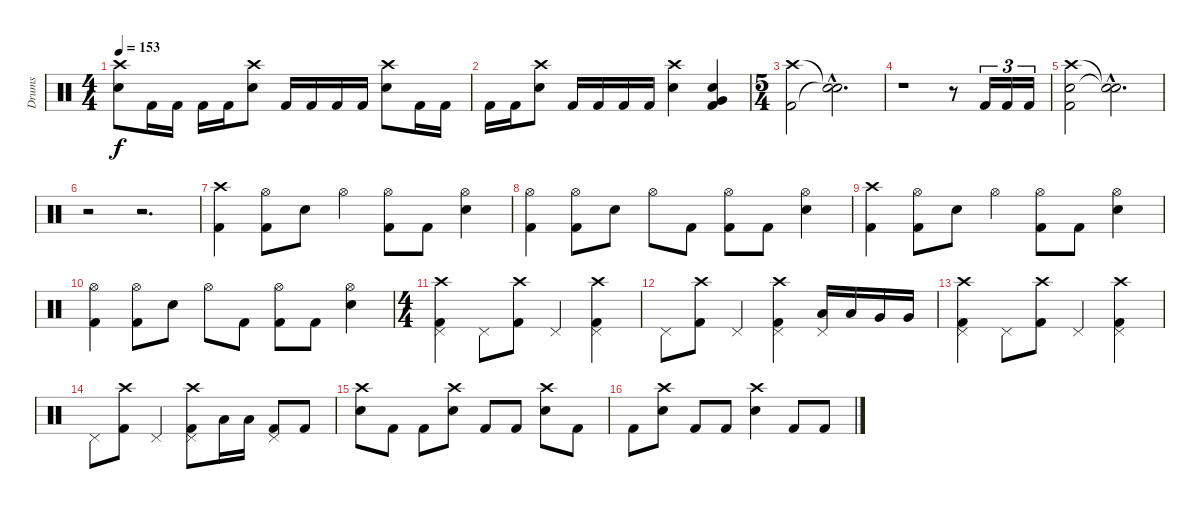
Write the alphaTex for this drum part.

\track ("Drums" "Drums") {instrument percussion}
\staff {score}
\articulation defaults
\ts (4 4)
\tempo 153
\clef neutral
\ks c
("Crash high (hit)" "Electric Snare (hit)").8{dy f} "Kick (hit) 2".16 "Kick (hit) 2".16 "Kick (hit) 2".16 "Kick (hit) 2".16 ("Crash high (hit)" "Electric Snare (hit)").8 "Kick (hit) 2".16 "Kick (hit) 2".16 "Kick (hit) 2".16 "Kick (hit) 2".16 ("Crash high (hit)" "Electric Snare (hit)").8 "Kick (hit) 2".16 "Kick (hit) 2".16 |
"Kick (hit) 2".16 "Kick (hit) 2".16 ("Crash high (hit)" "Electric Snare (hit)").8 "Kick (hit) 2".16 "Kick (hit) 2".16 "Kick (hit) 2".16 "Kick (hit) 2".16 ("Crash high (hit)" "Electric Snare (hit)").4 ("Very Low Tom (hit)" "Electric Snare (hit)" "Kick (hit) 2").4 |
\ts (5 4)
("Crash high (hit)" "Kick (hit) 2").2 ("Snare (hit)"{hac t} "Snare (hit)"{hac t}).2{d} |
r.1 r.8 "Kick (hit) 2".16{tu (3 2)} "Kick (hit) 2".16{tu (3 2)} "Kick (hit) 2".16{tu (3 2)} |
("Crash high (hit)" "Electric Snare (hit)" "Kick (hit) 2").2 ("Snare (hit)"{hac t} "Snare (hit)"{hac t}).2{d} |
r.2 r.2{d} |
("Crash high (hit)" "Kick (hit) 2").4 ("Hi-Hat (open)" "Kick (hit) 2").8 "Electric Snare (hit)".8 "Hi-Hat (open)".4 ("Hi-Hat (open)" "Kick (hit) 2").8 "Kick (hit) 2".8 ("Hi-Hat (open)" "Electric Snare (hit)").4 |
("Hi-Hat (open)" "Kick (hit) 2").4 ("Hi-Hat (open)" "Kick (hit) 2").8 "Electric Snare (hit)".8 "Hi-Hat (open)".8 "Kick (hit) 2".8 ("Hi-Hat (open)" "Kick (hit) 2").8 "Kick (hit) 2".8 ("Hi-Hat (open)" "Electric Snare (hit)").4 |
("Crash high (hit)" "Kick (hit) 2").4 ("Hi-Hat (open)" "Kick (hit) 2").8 "Electric Snare (hit)".8 "Hi-Hat (open)".4 ("Hi-Hat (open)" "Kick (hit) 2").8 "Kick (hit) 2".8 ("Hi-Hat (open)" "Electric Snare (hit)").4 |
("Hi-Hat (open)" "Kick (hit) 2").4 ("Hi-Hat (open)" "Kick (hit) 2").8 "Electric Snare (hit)".8 "Hi-Hat (open)".8 "Kick (hit) 2".8 ("Hi-Hat (open)" "Kick (hit) 2").8 "Kick (hit) 2".8 ("Hi-Hat (open)" "Electric Snare (hit)").4 |
\ts (4 4)
("Crash high (hit)" "Pedal Hi-Hat (hit)" "Kick (hit) 2").4 "Pedal Hi-Hat (hit)".8 ("Crash high (hit)" "Kick (hit) 2").8 "Pedal Hi-Hat (hit)".4 ("Crash high (hit)" "Pedal Hi-Hat (hit)" "Kick (hit) 2").4 |
"Pedal Hi-Hat (hit)".8 ("Crash high (hit)" "Kick (hit) 2").8 "Pedal Hi-Hat (hit)".4 ("Crash high (hit)" "Pedal Hi-Hat (hit)" "Kick (hit) 2").4 ("Pedal Hi-Hat (hit)" "Low Tom (hit)").16 "Low Tom (hit)".16 "Very Low Tom (hit)".16 "Very Low Tom (hit)".16 |
("Crash high (hit)" "Pedal Hi-Hat (hit)" "Kick (hit) 2").4 "Pedal Hi-Hat (hit)".8 ("Crash high (hit)" "Kick (hit) 2").8 "Pedal Hi-Hat (hit)".4 ("Crash high (hit)" "Pedal Hi-Hat (hit)" "Kick (hit) 2").4 |
"Pedal Hi-Hat (hit)".8 ("Crash high (hit)" "Kick (hit) 2").8 "Pedal Hi-Hat (hit)".4 ("Crash high (hit)" "Pedal Hi-Hat (hit)" "Kick (hit) 2").8 "Low Tom (hit)".16 "Low Tom (hit)".16 ("Pedal Hi-Hat (hit)" "Kick (hit) 2").8 "Kick (hit) 2".8 |
("Crash high (hit)" "Electric Snare (hit)").8 "Kick (hit) 2".8 "Kick (hit) 2".8 ("Crash high (hit)" "Electric Snare (hit)").8 "Kick (hit) 2".8 "Kick (hit) 2".8 ("Crash high (hit)" "Electric Snare (hit)").8 "Kick (hit) 2".8 |
"Kick (hit) 2".8 ("Crash high (hit)" "Electric Snare (hit)").8 "Kick (hit) 2".8 "Kick (hit) 2".8 ("Crash high (hit)" "Electric Snare (hit)").4 "Kick (hit) 2".8 "Kick (hit) 2".8
